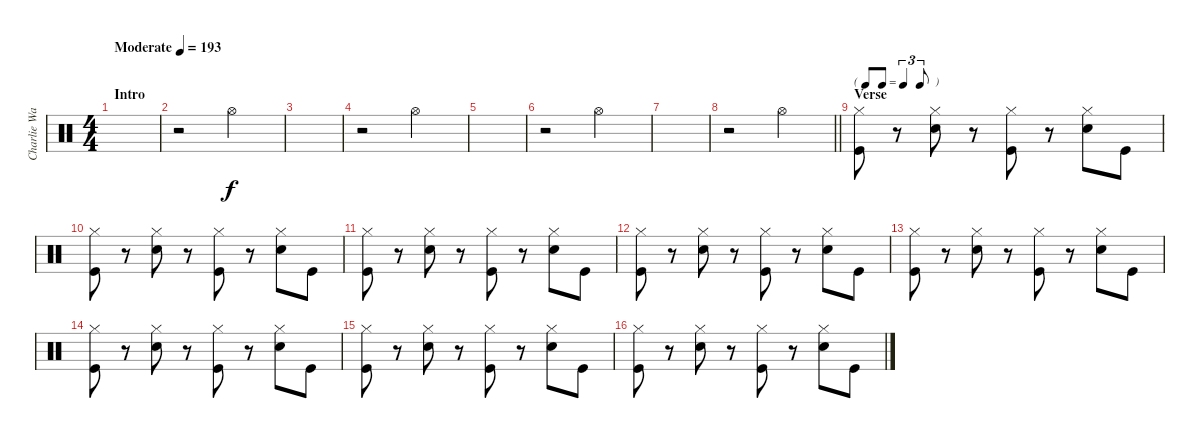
\track ("Charlie Watts" "Charlie Wa") {instrument percussion}
\staff {score}
\articulation defaults
\ts (4 4)
\section ("" "Intro")
\tempo (193 "Moderate")
\clef neutral
\ks c
|
r.2 "Hi-Hat (open)".2 |
|
r.2 "Hi-Hat (open)".2 |
|
r.2 "Hi-Hat (open)".2 |
|
\barLineRight lightlight
r.2 "Hi-Hat (open)".2 |
\tf triplet8th
\section ("" "Verse")
("Hi-Hat (closed)" "Kick (hit)").8 r.8 ("Hi-Hat (closed)" "Snare (hit) 2").8 r.8 ("Hi-Hat (closed)" "Kick (hit)").8 r.8 ("Hi-Hat (closed)" "Snare (hit) 2").8 "Kick (hit)".8 |
("Hi-Hat (closed)" "Kick (hit)").8 r.8 ("Hi-Hat (closed)" "Snare (hit) 2").8 r.8 ("Hi-Hat (closed)" "Kick (hit)").8 r.8 ("Hi-Hat (closed)" "Snare (hit) 2").8 "Kick (hit)".8 |
("Hi-Hat (closed)" "Kick (hit)").8 r.8 ("Hi-Hat (closed)" "Snare (hit) 2").8 r.8 ("Hi-Hat (closed)" "Kick (hit)").8 r.8 ("Hi-Hat (closed)" "Snare (hit) 2").8 "Kick (hit)".8 |
("Hi-Hat (closed)" "Kick (hit)").8 r.8 ("Hi-Hat (closed)" "Snare (hit) 2").8 r.8 ("Hi-Hat (closed)" "Kick (hit)").8 r.8 ("Hi-Hat (closed)" "Snare (hit) 2").8 "Kick (hit)".8 |
("Hi-Hat (closed)" "Kick (hit)").8 r.8 ("Hi-Hat (closed)" "Snare (hit) 2").8 r.8 ("Hi-Hat (closed)" "Kick (hit)").8 r.8 ("Hi-Hat (closed)" "Snare (hit) 2").8 "Kick (hit)".8 |
("Hi-Hat (closed)" "Kick (hit)").8 r.8 ("Hi-Hat (closed)" "Snare (hit) 2").8 r.8 ("Hi-Hat (closed)" "Kick (hit)").8 r.8 ("Hi-Hat (closed)" "Snare (hit) 2").8 "Kick (hit)".8 |
("Hi-Hat (closed)" "Kick (hit)").8 r.8 ("Hi-Hat (closed)" "Snare (hit) 2").8 r.8 ("Hi-Hat (closed)" "Kick (hit)").8 r.8 ("Hi-Hat (closed)" "Snare (hit) 2").8 "Kick (hit)".8 |
("Hi-Hat (closed)" "Kick (hit)").8 r.8 ("Hi-Hat (closed)" "Snare (hit) 2").8 r.8 ("Hi-Hat (closed)" "Kick (hit)").8 r.8 ("Hi-Hat (closed)" "Snare (hit) 2").8 "Kick (hit)".8
